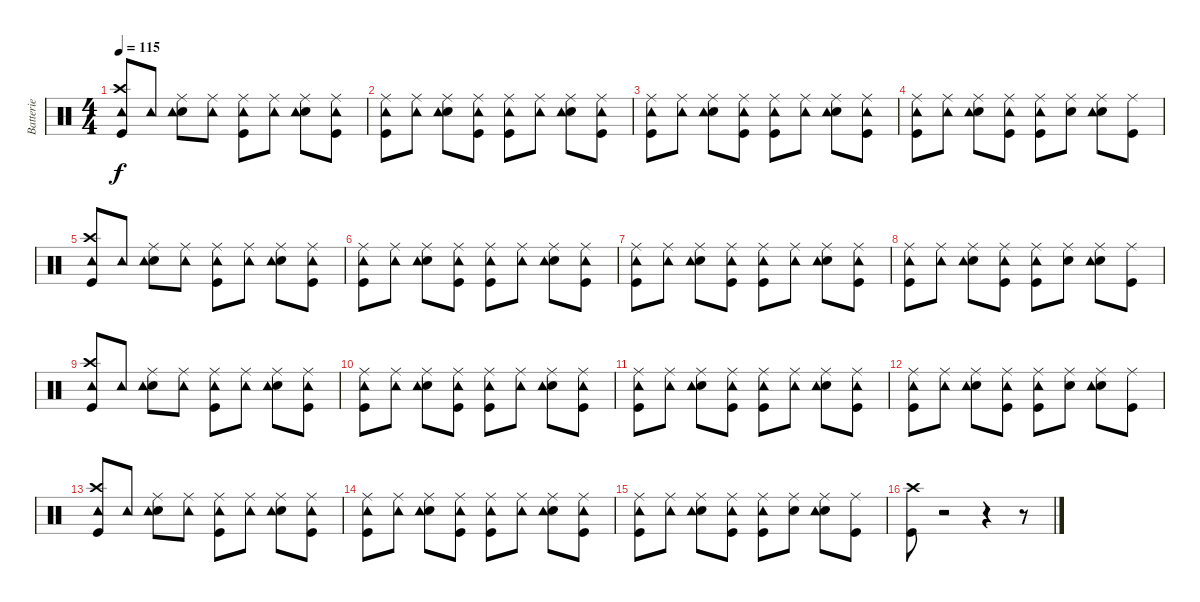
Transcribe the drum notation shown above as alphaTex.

\track ("Batterie" "Batterie") {instrument percussion}
\staff {score}
\articulation defaults
\ts (4 4)
\tempo 115
\clef neutral
\ks c
("Kick (hit)" "Crash high (hit)" "Tambourine (hit)").8{dy f} "Tambourine (hit)".8 ("Electric Snare (hit)" "Ride (middle)" "Tambourine (hit)").8 ("Ride (middle)" "Tambourine (hit)").8 ("Ride (middle)" "Kick (hit)" "Tambourine (hit)").8 ("Ride (middle)" "Tambourine (hit)").8 ("Electric Snare (hit)" "Ride (middle)" "Tambourine (hit)").8 ("Kick (hit)" "Ride (middle)" "Tambourine (hit)").8 |
("Kick (hit)" "Ride (middle)" "Tambourine (hit)").8 ("Ride (middle)" "Tambourine (hit)").8 ("Electric Snare (hit)" "Ride (middle)" "Tambourine (hit)").8 ("Kick (hit)" "Ride (middle)" "Tambourine (hit)").8 ("Kick (hit)" "Ride (middle)" "Tambourine (hit)").8 ("Ride (middle)" "Tambourine (hit)").8 ("Electric Snare (hit)" "Ride (middle)" "Tambourine (hit)").8 ("Ride (middle)" "Kick (hit)" "Tambourine (hit)").8 |
("Kick (hit)" "Ride (middle)" "Tambourine (hit)").8 ("Ride (middle)" "Tambourine (hit)").8 ("Electric Snare (hit)" "Ride (middle)" "Tambourine (hit)").8 ("Kick (hit)" "Ride (middle)" "Tambourine (hit)").8 ("Kick (hit)" "Ride (middle)" "Tambourine (hit)").8 ("Ride (middle)" "Tambourine (hit)").8 ("Ride (middle)" "Electric Snare (hit)" "Tambourine (hit)").8 ("Kick (hit)" "Ride (middle)" "Tambourine (hit)").8 |
("Kick (hit)" "Ride (middle)" "Tambourine (hit)").8 ("Ride (middle)" "Tambourine (hit)").8 ("Electric Snare (hit)" "Ride (middle)" "Tambourine (hit)").8 ("Kick (hit)" "Ride (middle)" "Tambourine (hit)").8 ("Kick (hit)" "Ride (middle)" "Tambourine (hit)").8 ("Electric Snare (hit)" "Ride (middle)").8 ("Ride (middle)" "Electric Snare (hit)" "Tambourine (hit)").8 ("Ride (middle)" "Kick (hit)").8 |
("Kick (hit)" "Crash high (hit)" "Tambourine (hit)").8 "Tambourine (hit)".8 ("Electric Snare (hit)" "Ride (middle)" "Tambourine (hit)").8 ("Ride (middle)" "Tambourine (hit)").8 ("Ride (middle)" "Kick (hit)" "Tambourine (hit)").8 ("Ride (middle)" "Tambourine (hit)").8 ("Electric Snare (hit)" "Ride (middle)" "Tambourine (hit)").8 ("Kick (hit)" "Ride (middle)" "Tambourine (hit)").8 |
("Kick (hit)" "Ride (middle)" "Tambourine (hit)").8 ("Ride (middle)" "Tambourine (hit)").8 ("Electric Snare (hit)" "Ride (middle)" "Tambourine (hit)").8 ("Kick (hit)" "Ride (middle)" "Tambourine (hit)").8 ("Kick (hit)" "Ride (middle)" "Tambourine (hit)").8 ("Ride (middle)" "Tambourine (hit)").8 ("Electric Snare (hit)" "Ride (middle)" "Tambourine (hit)").8 ("Ride (middle)" "Kick (hit)" "Tambourine (hit)").8 |
("Kick (hit)" "Ride (middle)" "Tambourine (hit)").8 ("Ride (middle)" "Tambourine (hit)").8 ("Electric Snare (hit)" "Ride (middle)" "Tambourine (hit)").8 ("Kick (hit)" "Ride (middle)" "Tambourine (hit)").8 ("Kick (hit)" "Ride (middle)" "Tambourine (hit)").8 ("Ride (middle)" "Tambourine (hit)").8 ("Ride (middle)" "Electric Snare (hit)" "Tambourine (hit)").8 ("Kick (hit)" "Ride (middle)" "Tambourine (hit)").8 |
("Kick (hit)" "Ride (middle)" "Tambourine (hit)").8 ("Ride (middle)" "Tambourine (hit)").8 ("Electric Snare (hit)" "Ride (middle)" "Tambourine (hit)").8 ("Kick (hit)" "Ride (middle)" "Tambourine (hit)").8 ("Kick (hit)" "Ride (middle)" "Tambourine (hit)").8 ("Electric Snare (hit)" "Ride (middle)").8 ("Ride (middle)" "Electric Snare (hit)" "Tambourine (hit)").8 ("Ride (middle)" "Kick (hit)").8 |
("Kick (hit)" "Crash high (hit)" "Tambourine (hit)").8 "Tambourine (hit)".8 ("Electric Snare (hit)" "Ride (middle)" "Tambourine (hit)").8 ("Ride (middle)" "Tambourine (hit)").8 ("Ride (middle)" "Kick (hit)" "Tambourine (hit)").8 ("Ride (middle)" "Tambourine (hit)").8 ("Electric Snare (hit)" "Ride (middle)" "Tambourine (hit)").8 ("Kick (hit)" "Ride (middle)" "Tambourine (hit)").8 |
("Kick (hit)" "Ride (middle)" "Tambourine (hit)").8 ("Ride (middle)" "Tambourine (hit)").8 ("Electric Snare (hit)" "Ride (middle)" "Tambourine (hit)").8 ("Kick (hit)" "Ride (middle)" "Tambourine (hit)").8 ("Kick (hit)" "Ride (middle)" "Tambourine (hit)").8 ("Ride (middle)" "Tambourine (hit)").8 ("Electric Snare (hit)" "Ride (middle)" "Tambourine (hit)").8 ("Ride (middle)" "Kick (hit)" "Tambourine (hit)").8 |
("Kick (hit)" "Ride (middle)" "Tambourine (hit)").8 ("Ride (middle)" "Tambourine (hit)").8 ("Electric Snare (hit)" "Ride (middle)" "Tambourine (hit)").8 ("Kick (hit)" "Ride (middle)" "Tambourine (hit)").8 ("Kick (hit)" "Ride (middle)" "Tambourine (hit)").8 ("Ride (middle)" "Tambourine (hit)").8 ("Ride (middle)" "Electric Snare (hit)" "Tambourine (hit)").8 ("Kick (hit)" "Ride (middle)" "Tambourine (hit)").8 |
("Kick (hit)" "Ride (middle)" "Tambourine (hit)").8 ("Ride (middle)" "Tambourine (hit)").8 ("Electric Snare (hit)" "Ride (middle)" "Tambourine (hit)").8 ("Kick (hit)" "Ride (middle)" "Tambourine (hit)").8 ("Kick (hit)" "Ride (middle)" "Tambourine (hit)").8 ("Electric Snare (hit)" "Ride (middle)").8 ("Ride (middle)" "Electric Snare (hit)" "Tambourine (hit)").8 ("Ride (middle)" "Kick (hit)").8 |
("Kick (hit)" "Crash high (hit)" "Tambourine (hit)").8 "Tambourine (hit)".8 ("Electric Snare (hit)" "Ride (middle)" "Tambourine (hit)").8 ("Ride (middle)" "Tambourine (hit)").8 ("Ride (middle)" "Kick (hit)" "Tambourine (hit)").8 ("Ride (middle)" "Tambourine (hit)").8 ("Electric Snare (hit)" "Ride (middle)" "Tambourine (hit)").8 ("Kick (hit)" "Ride (middle)" "Tambourine (hit)").8 |
("Kick (hit)" "Ride (middle)" "Tambourine (hit)").8 ("Ride (middle)" "Tambourine (hit)").8 ("Electric Snare (hit)" "Ride (middle)" "Tambourine (hit)").8 ("Kick (hit)" "Ride (middle)" "Tambourine (hit)").8 ("Kick (hit)" "Ride (middle)" "Tambourine (hit)").8 ("Ride (middle)" "Tambourine (hit)").8 ("Electric Snare (hit)" "Ride (middle)" "Tambourine (hit)").8 ("Ride (middle)" "Kick (hit)" "Tambourine (hit)").8 |
("Ride (middle)" "Kick (hit)" "Tambourine (hit)").8 ("Ride (middle)" "Tambourine (hit)").8 ("Electric Snare (hit)" "Ride (middle)" "Tambourine (hit)").8 ("Ride (middle)" "Kick (hit)" "Tambourine (hit)").8 ("Ride (middle)" "Kick (hit)" "Tambourine (hit)").8 ("Ride (middle)" "Electric Snare (hit)").8 ("Electric Snare (hit)" "Ride (middle)" "Tambourine (hit)").8 ("Kick (hit)" "Ride (middle)").8 |
("Kick (hit)" "Crash high (hit)").8 r.2 r.4 r.8
